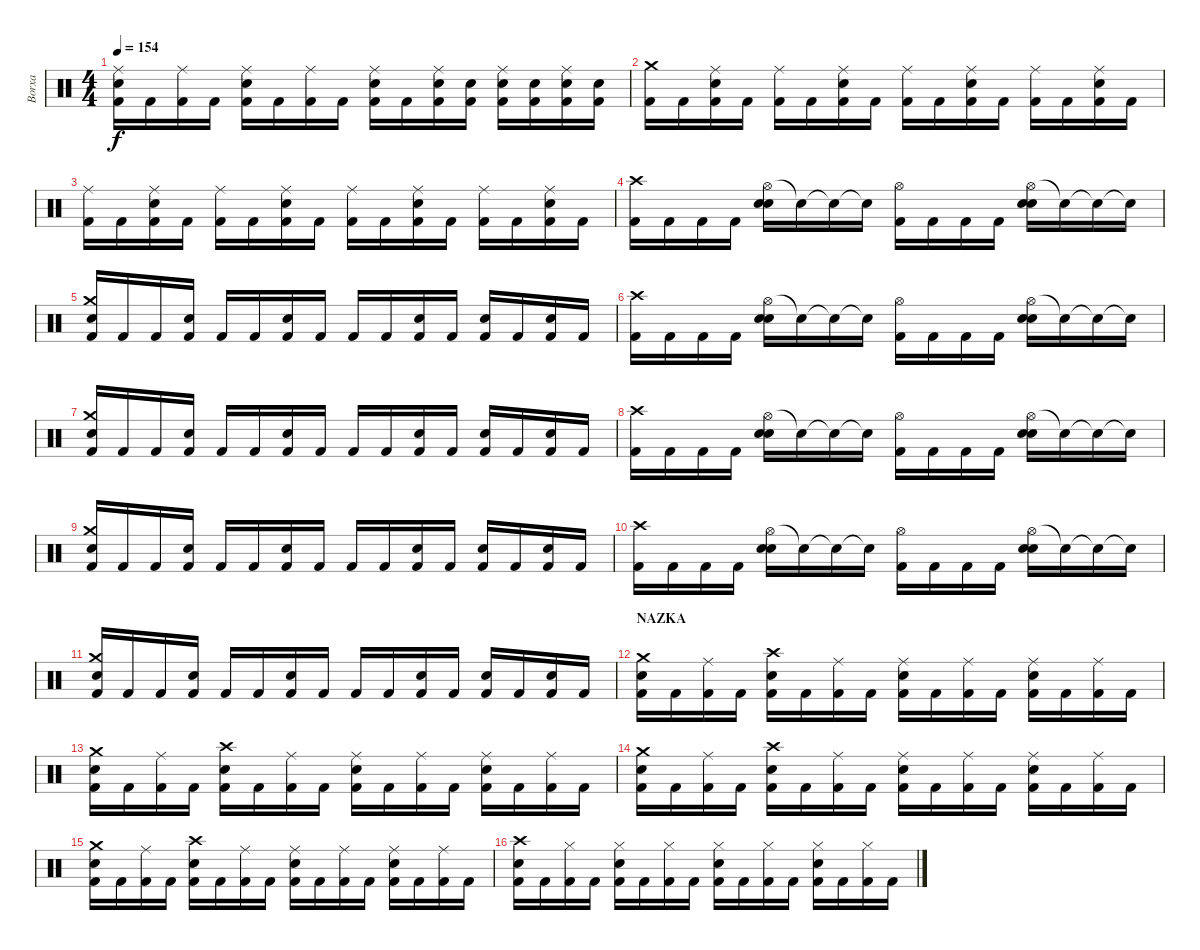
\track ("Borxa" "Borxa") {instrument percussion}
\staff {score}
\articulation defaults
\ts (4 4)
\tempo 154
\clef neutral
\ks c
("Ride (middle)" "Electric Snare (hit)" "Kick (hit) 2").16{dy f} "Kick (hit) 2".16 ("Ride (middle)" "Kick (hit) 2").16 "Kick (hit) 2".16 ("Ride (middle)" "Electric Snare (hit)" "Kick (hit) 2").16 "Kick (hit) 2".16 ("Ride (middle)" "Kick (hit) 2").16 "Kick (hit) 2".16 ("Ride (middle)" "Electric Snare (hit)" "Kick (hit) 2").16 "Kick (hit) 2".16 ("Ride (middle)" "Electric Snare (hit)" "Kick (hit) 2").16 ("Electric Snare (hit)" "Kick (hit) 2").16 ("Ride (middle)" "Electric Snare (hit)" "Kick (hit) 2").16 ("Electric Snare (hit)" "Kick (hit) 2").16 ("Ride (middle)" "Electric Snare (hit)" "Kick (hit) 2").16 ("Electric Snare (hit)" "Kick (hit) 2").16 |
("Crash medium (hit)" "Kick (hit) 2").16 "Kick (hit) 2".16 ("Ride (middle)" "Electric Snare (hit)" "Kick (hit) 2").16 "Kick (hit) 2".16 ("Ride (middle)" "Kick (hit) 2").16 "Kick (hit) 2".16 ("Ride (middle)" "Electric Snare (hit)" "Kick (hit) 2").16 "Kick (hit) 2".16 ("Ride (middle)" "Kick (hit) 2").16 "Kick (hit) 2".16 ("Ride (middle)" "Electric Snare (hit)" "Kick (hit) 2").16 "Kick (hit) 2".16 ("Ride (middle)" "Kick (hit) 2").16 "Kick (hit) 2".16 ("Ride (middle)" "Electric Snare (hit)" "Kick (hit) 2").16 "Kick (hit) 2".16 |
("Ride (middle)" "Kick (hit) 2").16 "Kick (hit) 2".16 ("Ride (middle)" "Electric Snare (hit)" "Kick (hit) 2").16 "Kick (hit) 2".16 ("Ride (middle)" "Kick (hit) 2").16 "Kick (hit) 2".16 ("Ride (middle)" "Electric Snare (hit)" "Kick (hit) 2").16 "Kick (hit) 2".16 ("Ride (middle)" "Kick (hit) 2").16 "Kick (hit) 2".16 ("Ride (middle)" "Electric Snare (hit)" "Kick (hit) 2").16 "Kick (hit) 2".16 ("Ride (middle)" "Kick (hit) 2").16 "Kick (hit) 2".16 ("Ride (middle)" "Electric Snare (hit)" "Kick (hit) 2").16 "Kick (hit) 2".16 |
\section ("" "")
("Crash high (hit)" "Kick (hit) 2").16 "Kick (hit) 2".16 "Kick (hit) 2".16 "Kick (hit) 2".16 ("Hi-Hat (open)" "Snare (hit) 2" "Snare (hit) 2").16 "Snare (hit)"{t}.16 "Snare (hit)"{t}.16 "Snare (hit)"{t}.16 ("Hi-Hat (open)" "Kick (hit) 2").16 "Kick (hit) 2".16 "Kick (hit) 2".16 "Kick (hit) 2".16 ("Hi-Hat (open)" "Snare (hit) 2" "Snare (hit) 2").16 "Snare (hit)"{t}.16 "Snare (hit)"{t}.16 "Snare (hit)"{t}.16 |
("Crash medium (hit)" "Snare (hit) 2" "Kick (hit) 2").16 "Kick (hit) 2".16 "Kick (hit) 2".16 ("Snare (hit) 2" "Kick (hit) 2").16 "Kick (hit) 2".16 "Kick (hit) 2".16 ("Snare (hit) 2" "Kick (hit) 2").16 "Kick (hit) 2".16 "Kick (hit) 2".16 "Kick (hit) 2".16 ("Snare (hit) 2" "Kick (hit) 2").16 "Kick (hit) 2".16 ("Snare (hit) 2" "Kick (hit) 2").16 "Kick (hit) 2".16 ("Snare (hit) 2" "Kick (hit) 2").16 "Kick (hit) 2".16 |
("Crash high (hit)" "Kick (hit) 2").16 "Kick (hit) 2".16 "Kick (hit) 2".16 "Kick (hit) 2".16 ("Hi-Hat (open)" "Snare (hit) 2" "Snare (hit) 2").16 "Snare (hit)"{t}.16 "Snare (hit)"{t}.16 "Snare (hit)"{t}.16 ("Hi-Hat (open)" "Kick (hit) 2").16 "Kick (hit) 2".16 "Kick (hit) 2".16 "Kick (hit) 2".16 ("Hi-Hat (open)" "Snare (hit) 2" "Snare (hit) 2").16 "Snare (hit)"{t}.16 "Snare (hit)"{t}.16 "Snare (hit)"{t}.16 |
("Crash medium (hit)" "Snare (hit) 2" "Kick (hit) 2").16 "Kick (hit) 2".16 "Kick (hit) 2".16 ("Snare (hit) 2" "Kick (hit) 2").16 "Kick (hit) 2".16 "Kick (hit) 2".16 ("Snare (hit) 2" "Kick (hit) 2").16 "Kick (hit) 2".16 "Kick (hit) 2".16 "Kick (hit) 2".16 ("Snare (hit) 2" "Kick (hit) 2").16 "Kick (hit) 2".16 ("Snare (hit) 2" "Kick (hit) 2").16 "Kick (hit) 2".16 ("Snare (hit) 2" "Kick (hit) 2").16 "Kick (hit) 2".16 |
("Crash high (hit)" "Kick (hit) 2").16 "Kick (hit) 2".16 "Kick (hit) 2".16 "Kick (hit) 2".16 ("Hi-Hat (open)" "Snare (hit) 2" "Snare (hit) 2").16 "Snare (hit)"{t}.16 "Snare (hit)"{t}.16 "Snare (hit)"{t}.16 ("Hi-Hat (open)" "Kick (hit) 2").16 "Kick (hit) 2".16 "Kick (hit) 2".16 "Kick (hit) 2".16 ("Hi-Hat (open)" "Snare (hit) 2" "Snare (hit) 2").16 "Snare (hit)"{t}.16 "Snare (hit)"{t}.16 "Snare (hit)"{t}.16 |
("Crash medium (hit)" "Snare (hit) 2" "Kick (hit) 2").16 "Kick (hit) 2".16 "Kick (hit) 2".16 ("Snare (hit) 2" "Kick (hit) 2").16 "Kick (hit) 2".16 "Kick (hit) 2".16 ("Snare (hit) 2" "Kick (hit) 2").16 "Kick (hit) 2".16 "Kick (hit) 2".16 "Kick (hit) 2".16 ("Snare (hit) 2" "Kick (hit) 2").16 "Kick (hit) 2".16 ("Snare (hit) 2" "Kick (hit) 2").16 "Kick (hit) 2".16 ("Snare (hit) 2" "Kick (hit) 2").16 "Kick (hit) 2".16 |
("Crash high (hit)" "Kick (hit) 2").16 "Kick (hit) 2".16 "Kick (hit) 2".16 "Kick (hit) 2".16 ("Hi-Hat (open)" "Snare (hit) 2" "Snare (hit) 2").16 "Snare (hit)"{t}.16 "Snare (hit)"{t}.16 "Snare (hit)"{t}.16 ("Hi-Hat (open)" "Kick (hit) 2").16 "Kick (hit) 2".16 "Kick (hit) 2".16 "Kick (hit) 2".16 ("Hi-Hat (open)" "Snare (hit) 2" "Snare (hit) 2").16 "Snare (hit)"{t}.16 "Snare (hit)"{t}.16 "Snare (hit)"{t}.16 |
("Crash medium (hit)" "Snare (hit) 2" "Kick (hit) 2").16 "Kick (hit) 2".16 "Kick (hit) 2".16 ("Snare (hit) 2" "Kick (hit) 2").16 "Kick (hit) 2".16 "Kick (hit) 2".16 ("Snare (hit) 2" "Kick (hit) 2").16 "Kick (hit) 2".16 "Kick (hit) 2".16 "Kick (hit) 2".16 ("Snare (hit) 2" "Kick (hit) 2").16 "Kick (hit) 2".16 ("Snare (hit) 2" "Kick (hit) 2").16 "Kick (hit) 2".16 ("Snare (hit) 2" "Kick (hit) 2").16 "Kick (hit) 2".16 |
\section ("" "NAZKA")
("Crash medium (hit)" "Snare (hit) 2" "Kick (hit) 2").16 "Kick (hit) 2".16 ("Ride (middle)" "Kick (hit) 2").16 "Kick (hit) 2".16 ("Crash high (hit)" "Snare (hit) 2" "Kick (hit) 2").16 "Kick (hit) 2".16 ("Ride (middle)" "Kick (hit) 2").16 "Kick (hit) 2".16 ("Snare (hit) 2" "Ride (middle)" "Kick (hit) 2").16 "Kick (hit) 2".16 ("Ride (middle)" "Kick (hit) 2").16 "Kick (hit) 2".16 ("Snare (hit) 2" "Ride (middle)" "Kick (hit) 2").16 "Kick (hit) 2".16 ("Ride (middle)" "Kick (hit) 2").16 "Kick (hit) 2".16 |
("Crash medium (hit)" "Snare (hit) 2" "Kick (hit) 2").16 "Kick (hit) 2".16 ("Ride (middle)" "Kick (hit) 2").16 "Kick (hit) 2".16 ("Crash high (hit)" "Snare (hit) 2" "Kick (hit) 2").16 "Kick (hit) 2".16 ("Ride (middle)" "Kick (hit) 2").16 "Kick (hit) 2".16 ("Snare (hit) 2" "Ride (middle)" "Kick (hit) 2").16 "Kick (hit) 2".16 ("Ride (middle)" "Kick (hit) 2").16 "Kick (hit) 2".16 ("Snare (hit) 2" "Ride (middle)" "Kick (hit) 2").16 "Kick (hit) 2".16 ("Ride (middle)" "Kick (hit) 2").16 "Kick (hit) 2".16 |
("Crash medium (hit)" "Snare (hit) 2" "Kick (hit) 2").16 "Kick (hit) 2".16 ("Ride (middle)" "Kick (hit) 2").16 "Kick (hit) 2".16 ("Crash high (hit)" "Snare (hit) 2" "Kick (hit) 2").16 "Kick (hit) 2".16 ("Ride (middle)" "Kick (hit) 2").16 "Kick (hit) 2".16 ("Snare (hit) 2" "Ride (middle)" "Kick (hit) 2").16 "Kick (hit) 2".16 ("Ride (middle)" "Kick (hit) 2").16 "Kick (hit) 2".16 ("Snare (hit) 2" "Ride (middle)" "Kick (hit) 2").16 "Kick (hit) 2".16 ("Ride (middle)" "Kick (hit) 2").16 "Kick (hit) 2".16 |
("Crash medium (hit)" "Snare (hit) 2" "Kick (hit) 2").16 "Kick (hit) 2".16 ("Ride (middle)" "Kick (hit) 2").16 "Kick (hit) 2".16 ("Crash high (hit)" "Snare (hit) 2" "Kick (hit) 2").16 "Kick (hit) 2".16 ("Ride (middle)" "Kick (hit) 2").16 "Kick (hit) 2".16 ("Snare (hit) 2" "Ride (middle)" "Kick (hit) 2").16 "Kick (hit) 2".16 ("Ride (middle)" "Kick (hit) 2").16 "Kick (hit) 2".16 ("Snare (hit) 2" "Ride (middle)" "Kick (hit) 2").16 "Kick (hit) 2".16 ("Ride (middle)" "Kick (hit) 2").16 "Kick (hit) 2".16 |
("Crash high (hit)" "Snare (hit) 2" "Kick (hit) 2").16 "Kick (hit) 2".16 ("Hi-Hat (closed)" "Kick (hit) 2").16 "Kick (hit) 2".16 ("Hi-Hat (closed)" "Snare (hit) 2" "Kick (hit) 2").16 "Kick (hit) 2".16 ("Hi-Hat (closed)" "Kick (hit) 2").16 "Kick (hit) 2".16 ("Hi-Hat (closed)" "Snare (hit) 2" "Kick (hit) 2").16 "Kick (hit) 2".16 ("Hi-Hat (closed)" "Kick (hit) 2").16 "Kick (hit) 2".16 ("Hi-Hat (closed)" "Snare (hit) 2" "Kick (hit) 2").16 "Kick (hit) 2".16 ("Hi-Hat (closed)" "Kick (hit) 2").16 "Kick (hit) 2".16
